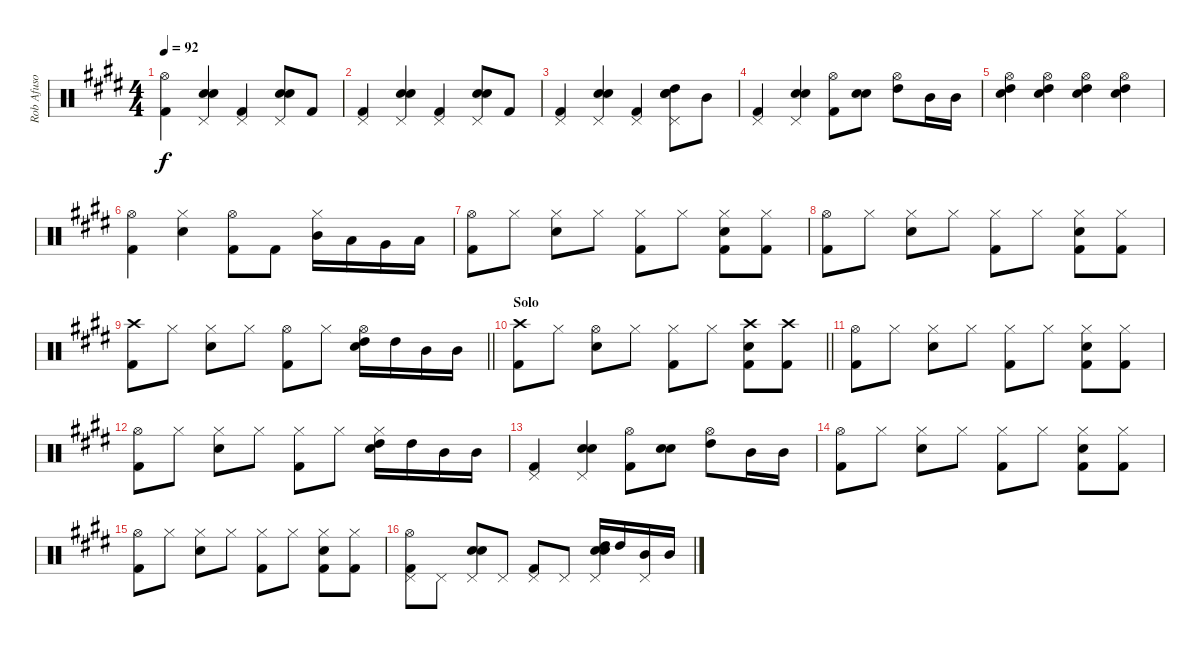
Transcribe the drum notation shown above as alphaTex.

\track ("Rob Afuso" "Rob Afuso") {instrument percussion}
\staff {score}
\articulation defaults
\ts (4 4)
\tempo 92
\clef neutral
\ks e
("Hi-Hat (open)" "Kick (hit) 2").4{dy f} ("Snare (hit) 2" "Electric Snare (hit)" "Pedal Hi-Hat (hit)").4 ("Kick (hit) 2" "Pedal Hi-Hat (hit)").4 ("Snare (hit) 2" "Electric Snare (hit)" "Pedal Hi-Hat (hit)").8 "Kick (hit) 2".8 |
("Kick (hit) 2" "Pedal Hi-Hat (hit)").4 ("Snare (hit) 2" "Electric Snare (hit)" "Pedal Hi-Hat (hit)").4 ("Kick (hit) 2" "Pedal Hi-Hat (hit)").4 ("Snare (hit) 2" "Electric Snare (hit)" "Pedal Hi-Hat (hit)").8 "Kick (hit) 2".8 |
("Kick (hit) 2" "Pedal Hi-Hat (hit)").4 ("Snare (hit) 2" "Electric Snare (hit)" "Pedal Hi-Hat (hit)").4 ("Kick (hit) 2" "Pedal Hi-Hat (hit)").4 ("Snare (hit) 2" "Electric Snare (hit)" "High Tom (hit)" "Pedal Hi-Hat (hit)").8 "Mid Tom (hit)".8 |
("Kick (hit) 2" "Pedal Hi-Hat (hit)").4 ("Snare (hit) 2" "Electric Snare (hit)" "Pedal Hi-Hat (hit)").4 ("Hi-Hat (open)" "Kick (hit) 2").8 ("Snare (hit) 2" "Electric Snare (hit)").8 ("Hi-Hat (open)" "High Tom (hit)").8 "Mid Tom (hit)".16 "Mid Tom (hit)".16 |
("Hi-Hat (open)" "Snare (hit) 2" "High Tom (hit)").4 ("Hi-Hat (open)" "Snare (hit) 2" "High Tom (hit)").4 ("Hi-Hat (open)" "Snare (hit) 2" "High Tom (hit)").4 ("Hi-Hat (open)" "Snare (hit) 2" "High Tom (hit)").4 |
("Hi-Hat (open)" "Kick (hit) 2").4 ("Hi-Hat (closed)" "Snare (hit) 2").4 ("Hi-Hat (open)" "Kick (hit) 2").8 "Kick (hit) 2".8 ("Hi-Hat (closed)" "Mid Tom (hit)").16 "Low Tom (hit)".16 "Very Low Tom (hit)".16 "Low Floor Tom (hit)".16 |
("Hi-Hat (open)" "Kick (hit) 2").8 "Hi-Hat (closed)".8 ("Hi-Hat (closed)" "Snare (hit) 2").8 "Hi-Hat (closed)".8 ("Hi-Hat (closed)" "Kick (hit) 2").8 "Hi-Hat (closed)".8 ("Hi-Hat (closed)" "Snare (hit) 2" "Kick (hit) 2").8 ("Hi-Hat (closed)" "Kick (hit) 2").8 |
("Hi-Hat (open)" "Kick (hit) 2").8 "Hi-Hat (closed)".8 ("Hi-Hat (closed)" "Snare (hit) 2").8 "Hi-Hat (closed)".8 ("Hi-Hat (closed)" "Kick (hit) 2").8 "Hi-Hat (closed)".8 ("Hi-Hat (closed)" "Snare (hit) 2" "Kick (hit) 2").8 ("Hi-Hat (closed)" "Kick (hit) 2").8 |
\barLineRight lightlight
("Crash high (hit)" "Kick (hit) 2").8 "Hi-Hat (closed)".8 ("Hi-Hat (closed)" "Snare (hit) 2").8 "Hi-Hat (closed)".8 ("Hi-Hat (open)" "Kick (hit) 2").8 "Hi-Hat (closed)".8 ("Hi-Hat (open)" "Snare (hit) 2" "High Tom (hit)").16 "High Tom (hit)".16 "Mid Tom (hit)".16 "Mid Tom (hit)".16 |
\section ("" "Solo")
\barLineRight lightlight
("Crash high (hit)" "Kick (hit) 2").8 "Hi-Hat (closed)".8 ("Hi-Hat (open)" "Snare (hit) 2").8 "Hi-Hat (closed)".8 ("Hi-Hat (closed)" "Kick (hit) 2").8 "Hi-Hat (closed)".8 ("Crash high (hit)" "Snare (hit) 2" "Kick (hit) 2").8 ("Crash high (hit)" "Kick (hit) 2").8 |
("Hi-Hat (open)" "Kick (hit) 2").8 "Hi-Hat (closed)".8 ("Hi-Hat (closed)" "Snare (hit) 2").8 "Hi-Hat (closed)".8 ("Hi-Hat (closed)" "Kick (hit) 2").8 "Hi-Hat (closed)".8 ("Hi-Hat (closed)" "Snare (hit) 2" "Kick (hit) 2").8 ("Hi-Hat (closed)" "Kick (hit) 2").8 |
("Hi-Hat (open)" "Kick (hit) 2").8 "Hi-Hat (closed)".8 ("Hi-Hat (closed)" "Snare (hit) 2").8 "Hi-Hat (closed)".8 ("Hi-Hat (closed)" "Kick (hit) 2").8 "Hi-Hat (closed)".8 ("Hi-Hat (closed)" "Snare (hit) 2" "High Tom (hit)").16 "High Tom (hit)".16 "Mid Tom (hit)".16 "Mid Tom (hit)".16 |
("Kick (hit) 2" "Pedal Hi-Hat (hit)").4 ("Snare (hit) 2" "Electric Snare (hit)" "Pedal Hi-Hat (hit)").4 ("Hi-Hat (open)" "Kick (hit) 2").8 ("Snare (hit) 2" "Electric Snare (hit)").8 ("Hi-Hat (open)" "High Tom (hit)").8 "Mid Tom (hit)".16 "Mid Tom (hit)".16 |
("Hi-Hat (open)" "Kick (hit) 2").8 "Hi-Hat (closed)".8 ("Hi-Hat (closed)" "Snare (hit) 2").8 "Hi-Hat (closed)".8 ("Hi-Hat (closed)" "Kick (hit) 2").8 "Hi-Hat (closed)".8 ("Hi-Hat (closed)" "Snare (hit) 2" "Kick (hit) 2").8 ("Hi-Hat (closed)" "Kick (hit) 2").8 |
("Hi-Hat (open)" "Kick (hit) 2").8 "Hi-Hat (closed)".8 ("Hi-Hat (closed)" "Snare (hit) 2").8 "Hi-Hat (closed)".8 ("Hi-Hat (closed)" "Kick (hit) 2").8 "Hi-Hat (closed)".8 ("Hi-Hat (closed)" "Snare (hit) 2" "Kick (hit) 2").8 ("Hi-Hat (closed)" "Kick (hit) 2").8 |
("Hi-Hat (open)" "Kick (hit) 2" "Pedal Hi-Hat (hit)").8 "Pedal Hi-Hat (hit)".8 ("Snare (hit) 2" "Electric Snare (hit)" "Pedal Hi-Hat (hit)").8 "Pedal Hi-Hat (hit)".8 ("Kick (hit) 2" "Pedal Hi-Hat (hit)").8 "Pedal Hi-Hat (hit)".8 ("Snare (hit) 2" "Electric Snare (hit)" "High Tom (hit)" "Pedal Hi-Hat (hit)").16 "High Tom (hit)".16 ("Mid Tom (hit)" "Pedal Hi-Hat (hit)").16 "Mid Tom (hit)".16
